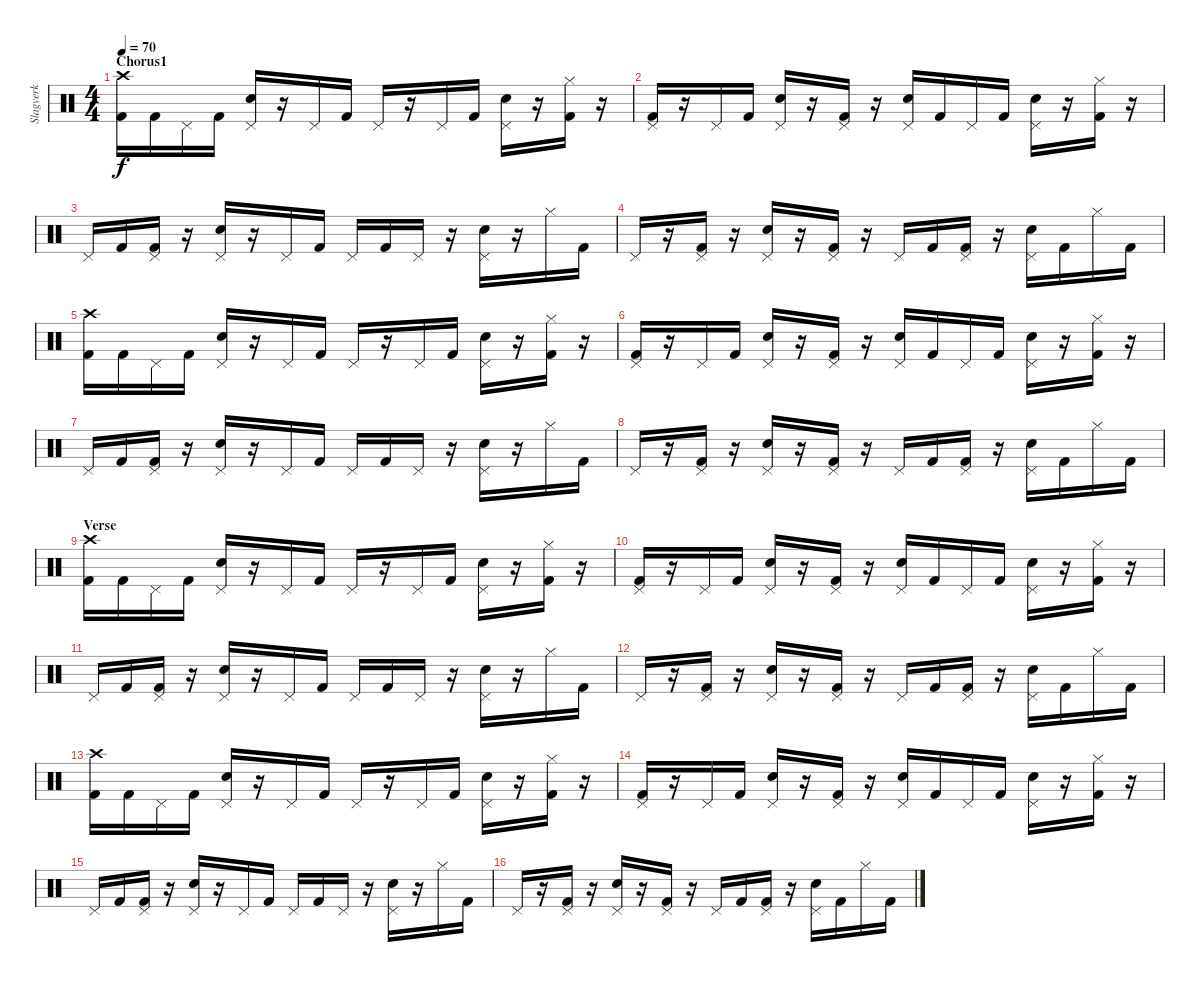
\track ("Slagverk" "Slagverk") {instrument percussion}
\staff {score}
\articulation defaults
\ts (4 4)
\section ("" "Chorus1")
\tempo 70
\clef neutral
\ks c
("Crash high (hit)" "Kick (hit) 2").16{dy f} "Kick (hit) 2".16 "Pedal Hi-Hat (hit)".16 "Kick (hit) 2".16 ("Pedal Hi-Hat (hit)" "Electric Snare (hit)").16 r.16 "Pedal Hi-Hat (hit)".16 "Kick (hit) 2".16 "Pedal Hi-Hat (hit)".16 r.16 "Pedal Hi-Hat (hit)".16 "Kick (hit) 2".16 ("Pedal Hi-Hat (hit)" "Electric Snare (hit)").16 r.16 ("Hi-Hat (closed)" "Kick (hit) 2").16 r.16 |
("Pedal Hi-Hat (hit)" "Kick (hit) 2").16 r.16 "Pedal Hi-Hat (hit)".16 "Kick (hit) 2".16 ("Pedal Hi-Hat (hit)" "Electric Snare (hit)").16 r.16 ("Pedal Hi-Hat (hit)" "Kick (hit) 2").16 r.16 ("Pedal Hi-Hat (hit)" "Electric Snare (hit)").16 "Kick (hit) 2".16 "Pedal Hi-Hat (hit)".16 "Kick (hit) 2".16 ("Pedal Hi-Hat (hit)" "Electric Snare (hit)").16 r.16 ("Hi-Hat (closed)" "Kick (hit) 2").16 r.16 |
"Pedal Hi-Hat (hit)".16 "Kick (hit) 2".16 ("Pedal Hi-Hat (hit)" "Kick (hit) 2").16 r.16 ("Pedal Hi-Hat (hit)" "Electric Snare (hit)").16 r.16 "Pedal Hi-Hat (hit)".16 "Kick (hit) 2".16 "Pedal Hi-Hat (hit)".16 "Kick (hit) 2".16 "Pedal Hi-Hat (hit)".16 r.16 ("Pedal Hi-Hat (hit)" "Electric Snare (hit)").16 r.16 "Hi-Hat (closed)".16 "Kick (hit) 2".16 |
"Pedal Hi-Hat (hit)".16 r.16 ("Pedal Hi-Hat (hit)" "Kick (hit) 2").16 r.16 ("Pedal Hi-Hat (hit)" "Electric Snare (hit)").16 r.16 ("Pedal Hi-Hat (hit)" "Kick (hit) 2").16 r.16 "Pedal Hi-Hat (hit)".16 "Kick (hit) 2".16 ("Pedal Hi-Hat (hit)" "Kick (hit) 2").16 r.16 ("Pedal Hi-Hat (hit)" "Electric Snare (hit)").16 "Kick (hit) 2".16 "Hi-Hat (closed)".16 "Kick (hit) 2".16 |
("Crash high (hit)" "Kick (hit) 2").16 "Kick (hit) 2".16 "Pedal Hi-Hat (hit)".16 "Kick (hit) 2".16 ("Pedal Hi-Hat (hit)" "Electric Snare (hit)").16 r.16 "Pedal Hi-Hat (hit)".16 "Kick (hit) 2".16 "Pedal Hi-Hat (hit)".16 r.16 "Pedal Hi-Hat (hit)".16 "Kick (hit) 2".16 ("Pedal Hi-Hat (hit)" "Electric Snare (hit)").16 r.16 ("Hi-Hat (closed)" "Kick (hit) 2").16 r.16 |
("Pedal Hi-Hat (hit)" "Kick (hit) 2").16 r.16 "Pedal Hi-Hat (hit)".16 "Kick (hit) 2".16 ("Pedal Hi-Hat (hit)" "Electric Snare (hit)").16 r.16 ("Pedal Hi-Hat (hit)" "Kick (hit) 2").16 r.16 ("Pedal Hi-Hat (hit)" "Electric Snare (hit)").16 "Kick (hit) 2".16 "Pedal Hi-Hat (hit)".16 "Kick (hit) 2".16 ("Pedal Hi-Hat (hit)" "Electric Snare (hit)").16 r.16 ("Hi-Hat (closed)" "Kick (hit) 2").16 r.16 |
"Pedal Hi-Hat (hit)".16 "Kick (hit) 2".16 ("Pedal Hi-Hat (hit)" "Kick (hit) 2").16 r.16 ("Pedal Hi-Hat (hit)" "Electric Snare (hit)").16 r.16 "Pedal Hi-Hat (hit)".16 "Kick (hit) 2".16 "Pedal Hi-Hat (hit)".16 "Kick (hit) 2".16 "Pedal Hi-Hat (hit)".16 r.16 ("Pedal Hi-Hat (hit)" "Electric Snare (hit)").16 r.16 "Hi-Hat (closed)".16 "Kick (hit) 2".16 |
"Pedal Hi-Hat (hit)".16 r.16 ("Pedal Hi-Hat (hit)" "Kick (hit) 2").16 r.16 ("Pedal Hi-Hat (hit)" "Electric Snare (hit)").16 r.16 ("Pedal Hi-Hat (hit)" "Kick (hit) 2").16 r.16 "Pedal Hi-Hat (hit)".16 "Kick (hit) 2".16 ("Pedal Hi-Hat (hit)" "Kick (hit) 2").16 r.16 ("Pedal Hi-Hat (hit)" "Electric Snare (hit)").16 "Kick (hit) 2".16 "Hi-Hat (closed)".16 "Kick (hit) 2".16 |
\section ("" "Verse")
("Crash high (hit)" "Kick (hit) 2").16 "Kick (hit) 2".16 "Pedal Hi-Hat (hit)".16 "Kick (hit) 2".16 ("Pedal Hi-Hat (hit)" "Electric Snare (hit)").16 r.16 "Pedal Hi-Hat (hit)".16 "Kick (hit) 2".16 "Pedal Hi-Hat (hit)".16 r.16 "Pedal Hi-Hat (hit)".16 "Kick (hit) 2".16 ("Pedal Hi-Hat (hit)" "Electric Snare (hit)").16 r.16 ("Hi-Hat (closed)" "Kick (hit) 2").16 r.16 |
("Pedal Hi-Hat (hit)" "Kick (hit) 2").16 r.16 "Pedal Hi-Hat (hit)".16 "Kick (hit) 2".16 ("Pedal Hi-Hat (hit)" "Electric Snare (hit)").16 r.16 ("Pedal Hi-Hat (hit)" "Kick (hit) 2").16 r.16 ("Pedal Hi-Hat (hit)" "Electric Snare (hit)").16 "Kick (hit) 2".16 "Pedal Hi-Hat (hit)".16 "Kick (hit) 2".16 ("Pedal Hi-Hat (hit)" "Electric Snare (hit)").16 r.16 ("Hi-Hat (closed)" "Kick (hit) 2").16 r.16 |
"Pedal Hi-Hat (hit)".16 "Kick (hit) 2".16 ("Pedal Hi-Hat (hit)" "Kick (hit) 2").16 r.16 ("Pedal Hi-Hat (hit)" "Electric Snare (hit)").16 r.16 "Pedal Hi-Hat (hit)".16 "Kick (hit) 2".16 "Pedal Hi-Hat (hit)".16 "Kick (hit) 2".16 "Pedal Hi-Hat (hit)".16 r.16 ("Pedal Hi-Hat (hit)" "Electric Snare (hit)").16 r.16 "Hi-Hat (closed)".16 "Kick (hit) 2".16 |
"Pedal Hi-Hat (hit)".16 r.16 ("Pedal Hi-Hat (hit)" "Kick (hit) 2").16 r.16 ("Pedal Hi-Hat (hit)" "Electric Snare (hit)").16 r.16 ("Pedal Hi-Hat (hit)" "Kick (hit) 2").16 r.16 "Pedal Hi-Hat (hit)".16 "Kick (hit) 2".16 ("Pedal Hi-Hat (hit)" "Kick (hit) 2").16 r.16 ("Pedal Hi-Hat (hit)" "Electric Snare (hit)").16 "Kick (hit) 2".16 "Hi-Hat (closed)".16 "Kick (hit) 2".16 |
("Crash high (hit)" "Kick (hit) 2").16 "Kick (hit) 2".16 "Pedal Hi-Hat (hit)".16 "Kick (hit) 2".16 ("Pedal Hi-Hat (hit)" "Electric Snare (hit)").16 r.16 "Pedal Hi-Hat (hit)".16 "Kick (hit) 2".16 "Pedal Hi-Hat (hit)".16 r.16 "Pedal Hi-Hat (hit)".16 "Kick (hit) 2".16 ("Pedal Hi-Hat (hit)" "Electric Snare (hit)").16 r.16 ("Hi-Hat (closed)" "Kick (hit) 2").16 r.16 |
("Pedal Hi-Hat (hit)" "Kick (hit) 2").16 r.16 "Pedal Hi-Hat (hit)".16 "Kick (hit) 2".16 ("Pedal Hi-Hat (hit)" "Electric Snare (hit)").16 r.16 ("Pedal Hi-Hat (hit)" "Kick (hit) 2").16 r.16 ("Pedal Hi-Hat (hit)" "Electric Snare (hit)").16 "Kick (hit) 2".16 "Pedal Hi-Hat (hit)".16 "Kick (hit) 2".16 ("Pedal Hi-Hat (hit)" "Electric Snare (hit)").16 r.16 ("Hi-Hat (closed)" "Kick (hit) 2").16 r.16 |
"Pedal Hi-Hat (hit)".16 "Kick (hit) 2".16 ("Pedal Hi-Hat (hit)" "Kick (hit) 2").16 r.16 ("Pedal Hi-Hat (hit)" "Electric Snare (hit)").16 r.16 "Pedal Hi-Hat (hit)".16 "Kick (hit) 2".16 "Pedal Hi-Hat (hit)".16 "Kick (hit) 2".16 "Pedal Hi-Hat (hit)".16 r.16 ("Pedal Hi-Hat (hit)" "Electric Snare (hit)").16 r.16 "Hi-Hat (closed)".16 "Kick (hit) 2".16 |
"Pedal Hi-Hat (hit)".16 r.16 ("Pedal Hi-Hat (hit)" "Kick (hit) 2").16 r.16 ("Pedal Hi-Hat (hit)" "Electric Snare (hit)").16 r.16 ("Pedal Hi-Hat (hit)" "Kick (hit) 2").16 r.16 "Pedal Hi-Hat (hit)".16 "Kick (hit) 2".16 ("Pedal Hi-Hat (hit)" "Kick (hit) 2").16 r.16 ("Pedal Hi-Hat (hit)" "Electric Snare (hit)").16 "Kick (hit) 2".16 "Hi-Hat (closed)".16 "Kick (hit) 2".16
